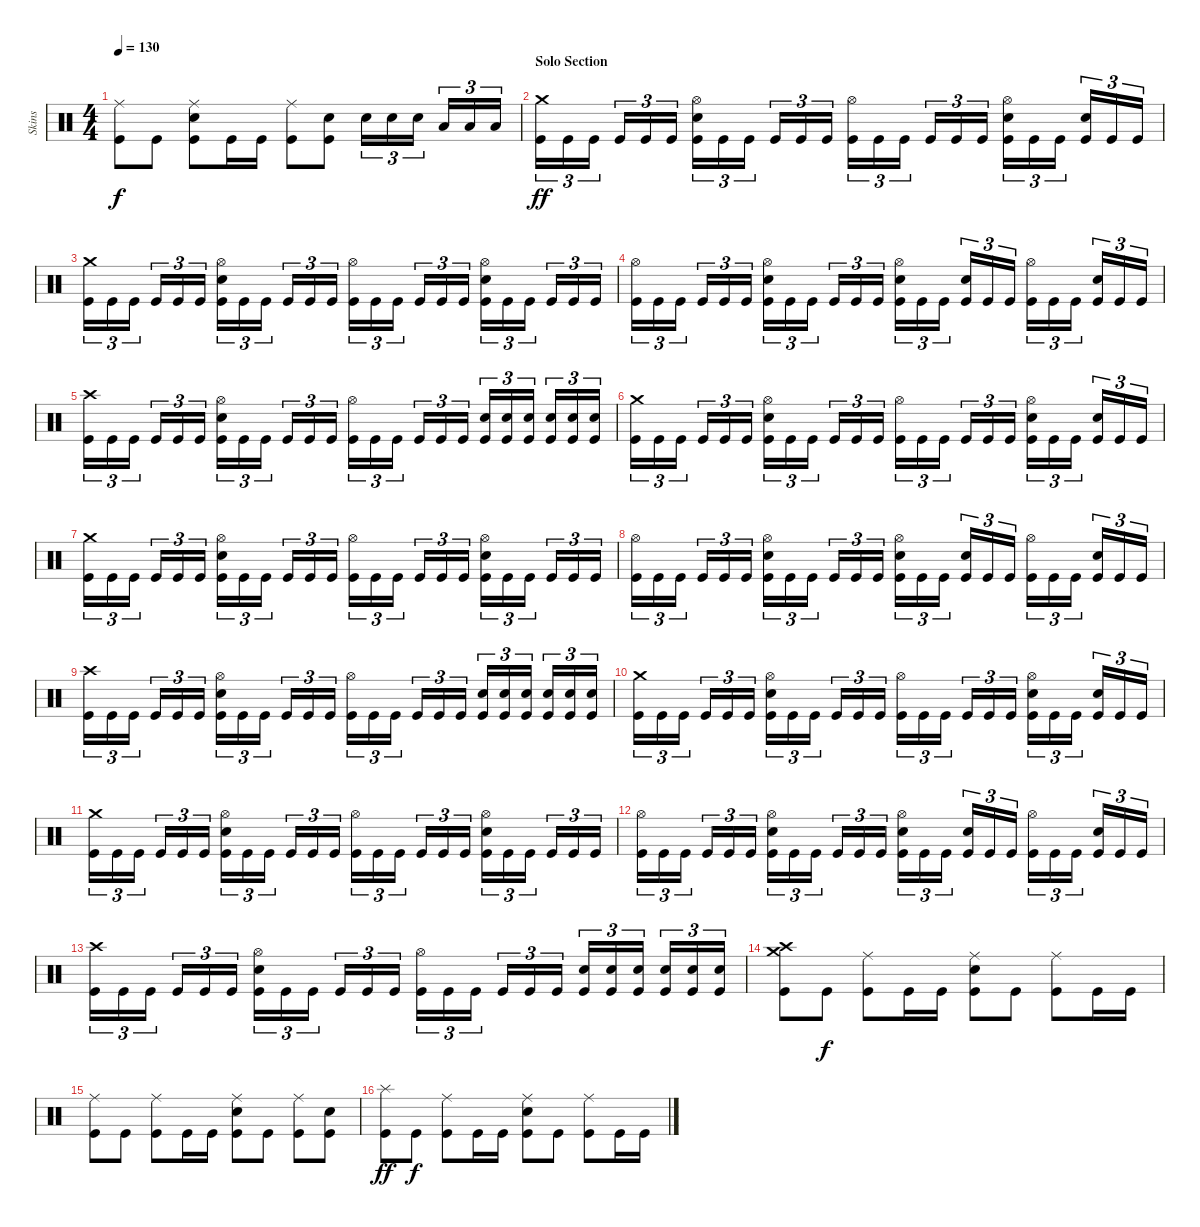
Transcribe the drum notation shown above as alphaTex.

\track ("Skins" "Skins") {instrument percussion}
\staff {score}
\articulation defaults
\ts (4 4)
\tempo 130
\clef neutral
\ks c
("Ride (middle)" "Kick (hit)").8{dy f} "Kick (hit)".8 ("Ride (middle)" "Electric Snare (hit)" "Kick (hit)").8 "Kick (hit)".16 "Kick (hit)".16 ("Ride (middle)" "Kick (hit)").8 ("Electric Snare (hit)" "Kick (hit)").8 "Electric Snare (hit)".16{tu (3 2)} "Electric Snare (hit)".16{tu (3 2)} "Electric Snare (hit)".16{tu (3 2)} "Low Tom (hit)".16{tu (3 2)} "Low Tom (hit)".16{tu (3 2)} "Low Tom (hit)".16{tu (3 2)} |
\section ("" "Solo Section")
("Crash medium (hit)" "Kick (hit)").16{tu (3 2) dy ff volume 13} "Kick (hit)".16{tu (3 2)} "Kick (hit)".16{tu (3 2)} "Kick (hit)".16{tu (3 2)} "Kick (hit)".16{tu (3 2)} "Kick (hit)".16{tu (3 2)} ("Hi-Hat (open)" "Electric Snare (hit)" "Kick (hit)").16{tu (3 2)} "Kick (hit)".16{tu (3 2)} "Kick (hit)".16{tu (3 2)} "Kick (hit)".16{tu (3 2)} "Kick (hit)".16{tu (3 2)} "Kick (hit)".16{tu (3 2)} ("Hi-Hat (open)" "Kick (hit)").16{tu (3 2)} "Kick (hit)".16{tu (3 2)} "Kick (hit)".16{tu (3 2)} "Kick (hit)".16{tu (3 2)} "Kick (hit)".16{tu (3 2)} "Kick (hit)".16{tu (3 2)} ("Hi-Hat (open)" "Electric Snare (hit)" "Kick (hit)").16{tu (3 2)} "Kick (hit)".16{tu (3 2)} "Kick (hit)".16{tu (3 2)} ("Electric Snare (hit)" "Kick (hit)").16{tu (3 2)} "Kick (hit)".16{tu (3 2)} "Kick (hit)".16{tu (3 2)} |
("Crash medium (hit)" "Kick (hit)").16{tu (3 2)} "Kick (hit)".16{tu (3 2)} "Kick (hit)".16{tu (3 2)} "Kick (hit)".16{tu (3 2)} "Kick (hit)".16{tu (3 2)} "Kick (hit)".16{tu (3 2)} ("Hi-Hat (open)" "Electric Snare (hit)" "Kick (hit)").16{tu (3 2)} "Kick (hit)".16{tu (3 2)} "Kick (hit)".16{tu (3 2)} "Kick (hit)".16{tu (3 2)} "Kick (hit)".16{tu (3 2)} "Kick (hit)".16{tu (3 2)} ("Hi-Hat (open)" "Kick (hit)").16{tu (3 2)} "Kick (hit)".16{tu (3 2)} "Kick (hit)".16{tu (3 2)} "Kick (hit)".16{tu (3 2)} "Kick (hit)".16{tu (3 2)} "Kick (hit)".16{tu (3 2)} ("Hi-Hat (open)" "Electric Snare (hit)" "Kick (hit)").16{tu (3 2)} "Kick (hit)".16{tu (3 2)} "Kick (hit)".16{tu (3 2)} "Kick (hit)".16{tu (3 2)} "Kick (hit)".16{tu (3 2)} "Kick (hit)".16{tu (3 2)} |
("Hi-Hat (open)" "Kick (hit)").16{tu (3 2)} "Kick (hit)".16{tu (3 2)} "Kick (hit)".16{tu (3 2)} "Kick (hit)".16{tu (3 2)} "Kick (hit)".16{tu (3 2)} "Kick (hit)".16{tu (3 2)} ("Hi-Hat (open)" "Electric Snare (hit)" "Kick (hit)").16{tu (3 2)} "Kick (hit)".16{tu (3 2)} "Kick (hit)".16{tu (3 2)} "Kick (hit)".16{tu (3 2)} "Kick (hit)".16{tu (3 2)} "Kick (hit)".16{tu (3 2)} ("Hi-Hat (open)" "Electric Snare (hit)" "Kick (hit)").16{tu (3 2)} "Kick (hit)".16{tu (3 2)} "Kick (hit)".16{tu (3 2)} ("Electric Snare (hit)" "Kick (hit)").16{tu (3 2)} "Kick (hit)".16{tu (3 2)} "Kick (hit)".16{tu (3 2)} ("Hi-Hat (open)" "Kick (hit)").16{tu (3 2)} "Kick (hit)".16{tu (3 2)} "Kick (hit)".16{tu (3 2)} ("Electric Snare (hit)" "Kick (hit)").16{tu (3 2)} "Kick (hit)".16{tu (3 2)} "Kick (hit)".16{tu (3 2)} |
("Crash high (hit)" "Kick (hit)").16{tu (3 2)} "Kick (hit)".16{tu (3 2)} "Kick (hit)".16{tu (3 2)} "Kick (hit)".16{tu (3 2)} "Kick (hit)".16{tu (3 2)} "Kick (hit)".16{tu (3 2)} ("Hi-Hat (open)" "Electric Snare (hit)" "Kick (hit)").16{tu (3 2)} "Kick (hit)".16{tu (3 2)} "Kick (hit)".16{tu (3 2)} "Kick (hit)".16{tu (3 2)} "Kick (hit)".16{tu (3 2)} "Kick (hit)".16{tu (3 2)} ("Hi-Hat (open)" "Kick (hit)").16{tu (3 2)} "Kick (hit)".16{tu (3 2)} "Kick (hit)".16{tu (3 2)} "Kick (hit)".16{tu (3 2)} "Kick (hit)".16{tu (3 2)} "Kick (hit)".16{tu (3 2)} ("Electric Snare (hit)" "Kick (hit)").16{tu (3 2)} ("Electric Snare (hit)" "Kick (hit)").16{tu (3 2)} ("Electric Snare (hit)" "Kick (hit)").16{tu (3 2)} ("Electric Snare (hit)" "Kick (hit)").16{tu (3 2)} ("Electric Snare (hit)" "Kick (hit)").16{tu (3 2)} ("Electric Snare (hit)" "Kick (hit)").16{tu (3 2)} |
("Crash medium (hit)" "Kick (hit)").16{tu (3 2) volume 12} "Kick (hit)".16{tu (3 2)} "Kick (hit)".16{tu (3 2)} "Kick (hit)".16{tu (3 2)} "Kick (hit)".16{tu (3 2)} "Kick (hit)".16{tu (3 2)} ("Hi-Hat (open)" "Electric Snare (hit)" "Kick (hit)").16{tu (3 2)} "Kick (hit)".16{tu (3 2)} "Kick (hit)".16{tu (3 2)} "Kick (hit)".16{tu (3 2)} "Kick (hit)".16{tu (3 2)} "Kick (hit)".16{tu (3 2)} ("Hi-Hat (open)" "Kick (hit)").16{tu (3 2)} "Kick (hit)".16{tu (3 2)} "Kick (hit)".16{tu (3 2)} "Kick (hit)".16{tu (3 2)} "Kick (hit)".16{tu (3 2)} "Kick (hit)".16{tu (3 2)} ("Hi-Hat (open)" "Electric Snare (hit)" "Kick (hit)").16{tu (3 2)} "Kick (hit)".16{tu (3 2)} "Kick (hit)".16{tu (3 2)} ("Electric Snare (hit)" "Kick (hit)").16{tu (3 2)} "Kick (hit)".16{tu (3 2)} "Kick (hit)".16{tu (3 2)} |
("Crash medium (hit)" "Kick (hit)").16{tu (3 2)} "Kick (hit)".16{tu (3 2)} "Kick (hit)".16{tu (3 2)} "Kick (hit)".16{tu (3 2)} "Kick (hit)".16{tu (3 2)} "Kick (hit)".16{tu (3 2)} ("Hi-Hat (open)" "Electric Snare (hit)" "Kick (hit)").16{tu (3 2)} "Kick (hit)".16{tu (3 2)} "Kick (hit)".16{tu (3 2)} "Kick (hit)".16{tu (3 2)} "Kick (hit)".16{tu (3 2)} "Kick (hit)".16{tu (3 2)} ("Hi-Hat (open)" "Kick (hit)").16{tu (3 2)} "Kick (hit)".16{tu (3 2)} "Kick (hit)".16{tu (3 2)} "Kick (hit)".16{tu (3 2)} "Kick (hit)".16{tu (3 2)} "Kick (hit)".16{tu (3 2)} ("Hi-Hat (open)" "Electric Snare (hit)" "Kick (hit)").16{tu (3 2)} "Kick (hit)".16{tu (3 2)} "Kick (hit)".16{tu (3 2)} "Kick (hit)".16{tu (3 2)} "Kick (hit)".16{tu (3 2)} "Kick (hit)".16{tu (3 2)} |
("Hi-Hat (open)" "Kick (hit)").16{tu (3 2)} "Kick (hit)".16{tu (3 2)} "Kick (hit)".16{tu (3 2)} "Kick (hit)".16{tu (3 2)} "Kick (hit)".16{tu (3 2)} "Kick (hit)".16{tu (3 2)} ("Hi-Hat (open)" "Electric Snare (hit)" "Kick (hit)").16{tu (3 2)} "Kick (hit)".16{tu (3 2)} "Kick (hit)".16{tu (3 2)} "Kick (hit)".16{tu (3 2)} "Kick (hit)".16{tu (3 2)} "Kick (hit)".16{tu (3 2)} ("Hi-Hat (open)" "Electric Snare (hit)" "Kick (hit)").16{tu (3 2)} "Kick (hit)".16{tu (3 2)} "Kick (hit)".16{tu (3 2)} ("Electric Snare (hit)" "Kick (hit)").16{tu (3 2)} "Kick (hit)".16{tu (3 2)} "Kick (hit)".16{tu (3 2)} ("Hi-Hat (open)" "Kick (hit)").16{tu (3 2)} "Kick (hit)".16{tu (3 2)} "Kick (hit)".16{tu (3 2)} ("Electric Snare (hit)" "Kick (hit)").16{tu (3 2)} "Kick (hit)".16{tu (3 2)} "Kick (hit)".16{tu (3 2)} |
("Crash high (hit)" "Kick (hit)").16{tu (3 2)} "Kick (hit)".16{tu (3 2)} "Kick (hit)".16{tu (3 2)} "Kick (hit)".16{tu (3 2)} "Kick (hit)".16{tu (3 2)} "Kick (hit)".16{tu (3 2)} ("Hi-Hat (open)" "Electric Snare (hit)" "Kick (hit)").16{tu (3 2)} "Kick (hit)".16{tu (3 2)} "Kick (hit)".16{tu (3 2)} "Kick (hit)".16{tu (3 2)} "Kick (hit)".16{tu (3 2)} "Kick (hit)".16{tu (3 2)} ("Hi-Hat (open)" "Kick (hit)").16{tu (3 2)} "Kick (hit)".16{tu (3 2)} "Kick (hit)".16{tu (3 2)} "Kick (hit)".16{tu (3 2)} "Kick (hit)".16{tu (3 2)} "Kick (hit)".16{tu (3 2)} ("Electric Snare (hit)" "Kick (hit)").16{tu (3 2)} ("Electric Snare (hit)" "Kick (hit)").16{tu (3 2)} ("Electric Snare (hit)" "Kick (hit)").16{tu (3 2)} ("Electric Snare (hit)" "Kick (hit)").16{tu (3 2)} ("Electric Snare (hit)" "Kick (hit)").16{tu (3 2)} ("Electric Snare (hit)" "Kick (hit)").16{tu (3 2)} |
("Crash medium (hit)" "Kick (hit)").16{tu (3 2)} "Kick (hit)".16{tu (3 2)} "Kick (hit)".16{tu (3 2)} "Kick (hit)".16{tu (3 2)} "Kick (hit)".16{tu (3 2)} "Kick (hit)".16{tu (3 2)} ("Hi-Hat (open)" "Electric Snare (hit)" "Kick (hit)").16{tu (3 2)} "Kick (hit)".16{tu (3 2)} "Kick (hit)".16{tu (3 2)} "Kick (hit)".16{tu (3 2)} "Kick (hit)".16{tu (3 2)} "Kick (hit)".16{tu (3 2)} ("Hi-Hat (open)" "Kick (hit)").16{tu (3 2)} "Kick (hit)".16{tu (3 2)} "Kick (hit)".16{tu (3 2)} "Kick (hit)".16{tu (3 2)} "Kick (hit)".16{tu (3 2)} "Kick (hit)".16{tu (3 2)} ("Hi-Hat (open)" "Electric Snare (hit)" "Kick (hit)").16{tu (3 2)} "Kick (hit)".16{tu (3 2)} "Kick (hit)".16{tu (3 2)} ("Electric Snare (hit)" "Kick (hit)").16{tu (3 2)} "Kick (hit)".16{tu (3 2)} "Kick (hit)".16{tu (3 2)} |
("Crash medium (hit)" "Kick (hit)").16{tu (3 2)} "Kick (hit)".16{tu (3 2)} "Kick (hit)".16{tu (3 2)} "Kick (hit)".16{tu (3 2)} "Kick (hit)".16{tu (3 2)} "Kick (hit)".16{tu (3 2)} ("Hi-Hat (open)" "Electric Snare (hit)" "Kick (hit)").16{tu (3 2)} "Kick (hit)".16{tu (3 2)} "Kick (hit)".16{tu (3 2)} "Kick (hit)".16{tu (3 2)} "Kick (hit)".16{tu (3 2)} "Kick (hit)".16{tu (3 2)} ("Hi-Hat (open)" "Kick (hit)").16{tu (3 2)} "Kick (hit)".16{tu (3 2)} "Kick (hit)".16{tu (3 2)} "Kick (hit)".16{tu (3 2)} "Kick (hit)".16{tu (3 2)} "Kick (hit)".16{tu (3 2)} ("Hi-Hat (open)" "Electric Snare (hit)" "Kick (hit)").16{tu (3 2)} "Kick (hit)".16{tu (3 2)} "Kick (hit)".16{tu (3 2)} "Kick (hit)".16{tu (3 2)} "Kick (hit)".16{tu (3 2)} "Kick (hit)".16{tu (3 2)} |
("Hi-Hat (open)" "Kick (hit)").16{tu (3 2)} "Kick (hit)".16{tu (3 2)} "Kick (hit)".16{tu (3 2)} "Kick (hit)".16{tu (3 2)} "Kick (hit)".16{tu (3 2)} "Kick (hit)".16{tu (3 2)} ("Hi-Hat (open)" "Electric Snare (hit)" "Kick (hit)").16{tu (3 2)} "Kick (hit)".16{tu (3 2)} "Kick (hit)".16{tu (3 2)} "Kick (hit)".16{tu (3 2)} "Kick (hit)".16{tu (3 2)} "Kick (hit)".16{tu (3 2)} ("Hi-Hat (open)" "Electric Snare (hit)" "Kick (hit)").16{tu (3 2)} "Kick (hit)".16{tu (3 2)} "Kick (hit)".16{tu (3 2)} ("Electric Snare (hit)" "Kick (hit)").16{tu (3 2)} "Kick (hit)".16{tu (3 2)} "Kick (hit)".16{tu (3 2)} ("Hi-Hat (open)" "Kick (hit)").16{tu (3 2)} "Kick (hit)".16{tu (3 2)} "Kick (hit)".16{tu (3 2)} ("Electric Snare (hit)" "Kick (hit)").16{tu (3 2)} "Kick (hit)".16{tu (3 2)} "Kick (hit)".16{tu (3 2)} |
("Crash high (hit)" "Kick (hit)").16{tu (3 2)} "Kick (hit)".16{tu (3 2)} "Kick (hit)".16{tu (3 2)} "Kick (hit)".16{tu (3 2)} "Kick (hit)".16{tu (3 2)} "Kick (hit)".16{tu (3 2)} ("Hi-Hat (open)" "Electric Snare (hit)" "Kick (hit)").16{tu (3 2)} "Kick (hit)".16{tu (3 2)} "Kick (hit)".16{tu (3 2)} "Kick (hit)".16{tu (3 2)} "Kick (hit)".16{tu (3 2)} "Kick (hit)".16{tu (3 2)} ("Hi-Hat (open)" "Kick (hit)").16{tu (3 2)} "Kick (hit)".16{tu (3 2)} "Kick (hit)".16{tu (3 2)} "Kick (hit)".16{tu (3 2)} "Kick (hit)".16{tu (3 2)} "Kick (hit)".16{tu (3 2)} ("Electric Snare (hit)" "Kick (hit)").16{tu (3 2)} ("Electric Snare (hit)" "Kick (hit)").16{tu (3 2)} ("Electric Snare (hit)" "Kick (hit)").16{tu (3 2)} ("Electric Snare (hit)" "Kick (hit)").16{tu (3 2)} ("Electric Snare (hit)" "Kick (hit)").16{tu (3 2)} ("Electric Snare (hit)" "Kick (hit)").16{tu (3 2) volume 12} |
("Crash high (hit)" "Crash medium (hit)" "Kick (hit)").8 "Kick (hit)".8{dy f} ("Ride (middle)" "Kick (hit)").8 "Kick (hit)".16 "Kick (hit)".16 ("Ride (middle)" "Electric Snare (hit)" "Kick (hit)").8 "Kick (hit)".8 ("Ride (middle)" "Kick (hit)").8 "Kick (hit)".16 "Kick (hit)".16 |
("Ride (middle)" "Kick (hit)").8 "Kick (hit)".8 ("Ride (middle)" "Kick (hit)").8 "Kick (hit)".16 "Kick (hit)".16 ("Ride (middle)" "Electric Snare (hit)" "Kick (hit)").8 "Kick (hit)".8 ("Ride (middle)" "Kick (hit)").8 ("Electric Snare (hit)" "Kick (hit)").8 |
("Splash (hit)" "Kick (hit)").8{dy ff} "Kick (hit)".8{dy f} ("Ride (middle)" "Kick (hit)").8 "Kick (hit)".16 "Kick (hit)".16 ("Ride (middle)" "Electric Snare (hit)" "Kick (hit)").8 "Kick (hit)".8 ("Ride (middle)" "Kick (hit)").8 "Kick (hit)".16 "Kick (hit)".16
